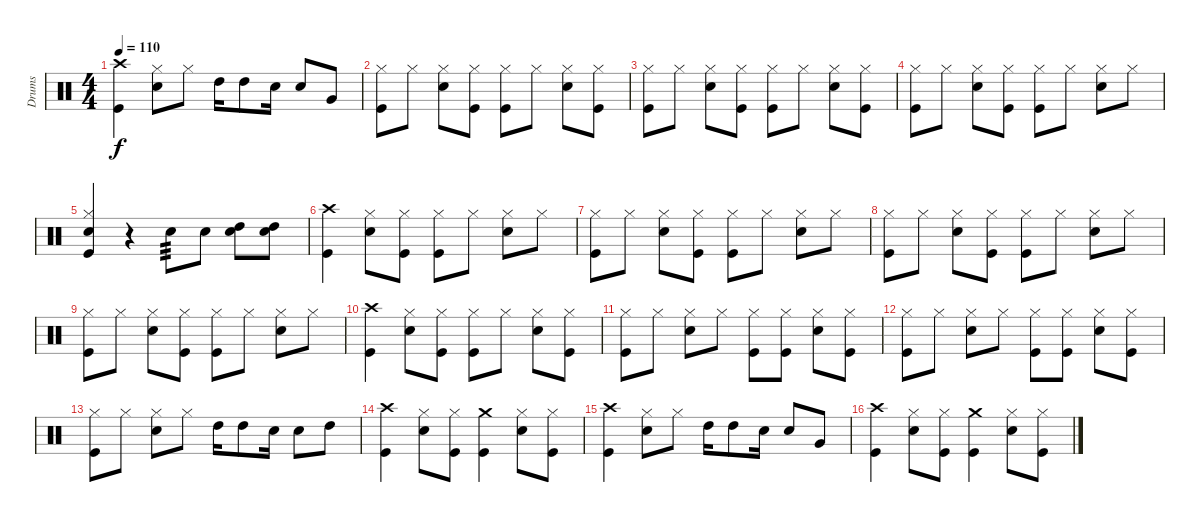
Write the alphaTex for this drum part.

\track ("Drums" "Drums") {instrument percussion}
\staff {score}
\articulation defaults
\ts (4 4)
\tempo 110
\clef neutral
\ks c
("Crash high (hit)" "Kick (hit)").4{dy f} ("Hi-Hat (closed)" "Snare (hit) 2").8 "Hi-Hat (closed)".8 "High Tom (hit)".16 "High Tom (hit)".8 "Snare (hit) 2".16 "Snare (hit) 2".8 "Very Low Tom (hit)".8 |
("Hi-Hat (closed)" "Kick (hit)").8 "Hi-Hat (closed)".8 ("Hi-Hat (closed)" "Snare (hit) 2").8 ("Hi-Hat (closed)" "Kick (hit)").8 ("Hi-Hat (closed)" "Kick (hit)").8 "Hi-Hat (closed)".8 ("Hi-Hat (closed)" "Snare (hit) 2").8 ("Hi-Hat (closed)" "Kick (hit)").8 |
("Hi-Hat (closed)" "Kick (hit)").8 "Hi-Hat (closed)".8 ("Hi-Hat (closed)" "Snare (hit) 2").8 ("Hi-Hat (closed)" "Kick (hit)").8 ("Hi-Hat (closed)" "Kick (hit)").8 "Hi-Hat (closed)".8 ("Hi-Hat (closed)" "Snare (hit) 2").8 ("Hi-Hat (closed)" "Kick (hit)").8 |
("Hi-Hat (closed)" "Kick (hit)").8 "Hi-Hat (closed)".8 ("Hi-Hat (closed)" "Snare (hit) 2").8 ("Hi-Hat (closed)" "Kick (hit)").8 ("Hi-Hat (closed)" "Kick (hit)").8 "Hi-Hat (closed)".8 ("Hi-Hat (closed)" "Snare (hit) 2").8 "Hi-Hat (closed)".8 |
("Hi-Hat (closed)" "Snare (hit) 2" "Kick (hit)").4 r.4 "Snare (hit) 2".8{tp 3} "Snare (hit) 2".8 ("High Tom (hit)" "Snare (hit) 2").8 ("High Tom (hit)" "Snare (hit) 2").8 |
("Crash high (hit)" "Kick (hit)").4 ("Hi-Hat (closed)" "Snare (hit) 2").8 ("Hi-Hat (closed)" "Kick (hit)").8 ("Hi-Hat (closed)" "Kick (hit)").8 "Hi-Hat (closed)".8 ("Hi-Hat (closed)" "Snare (hit) 2").8 "Hi-Hat (closed)".8 |
("Hi-Hat (closed)" "Kick (hit)").8 "Hi-Hat (closed)".8 ("Hi-Hat (closed)" "Snare (hit) 2").8 ("Hi-Hat (closed)" "Kick (hit)").8 ("Hi-Hat (closed)" "Kick (hit)").8 "Hi-Hat (closed)".8 ("Hi-Hat (closed)" "Snare (hit) 2").8 "Hi-Hat (closed)".8 |
("Hi-Hat (closed)" "Kick (hit)").8 "Hi-Hat (closed)".8 ("Hi-Hat (closed)" "Snare (hit) 2").8 ("Hi-Hat (closed)" "Kick (hit)").8 ("Hi-Hat (closed)" "Kick (hit)").8 "Hi-Hat (closed)".8 ("Hi-Hat (closed)" "Snare (hit) 2").8 "Hi-Hat (closed)".8 |
("Hi-Hat (closed)" "Kick (hit)").8 "Hi-Hat (closed)".8 ("Hi-Hat (closed)" "Snare (hit) 2").8 ("Hi-Hat (closed)" "Kick (hit)").8 ("Hi-Hat (closed)" "Kick (hit)").8 "Hi-Hat (closed)".8 ("Hi-Hat (closed)" "Snare (hit) 2").8 "Hi-Hat (closed)".8 |
("Crash high (hit)" "Kick (hit)").4 ("Hi-Hat (closed)" "Snare (hit) 2").8 ("Hi-Hat (closed)" "Kick (hit)").8 ("Hi-Hat (closed)" "Kick (hit)").8 "Hi-Hat (closed)".8 ("Hi-Hat (closed)" "Snare (hit) 2").8 ("Hi-Hat (closed)" "Kick (hit)").8 |
("Hi-Hat (closed)" "Kick (hit)").8 "Hi-Hat (closed)".8 ("Hi-Hat (closed)" "Snare (hit) 2").8 "Hi-Hat (closed)".8 ("Hi-Hat (closed)" "Kick (hit)").8 ("Hi-Hat (closed)" "Kick (hit)").8 ("Hi-Hat (closed)" "Snare (hit) 2").8 ("Hi-Hat (closed)" "Kick (hit)").8 |
("Hi-Hat (closed)" "Kick (hit)").8 "Hi-Hat (closed)".8 ("Hi-Hat (closed)" "Snare (hit) 2").8 "Hi-Hat (closed)".8 ("Hi-Hat (closed)" "Kick (hit)").8 ("Hi-Hat (closed)" "Kick (hit)").8 ("Hi-Hat (closed)" "Snare (hit) 2").8 ("Hi-Hat (closed)" "Kick (hit)").8 |
("Hi-Hat (closed)" "Kick (hit)").8 "Hi-Hat (closed)".8 ("Hi-Hat (closed)" "Snare (hit) 2").8 "Hi-Hat (closed)".8 "High Tom (hit)".16 "High Tom (hit)".8 "Snare (hit) 2".16 "Snare (hit) 2".8 "High Tom (hit)".8 |
("Crash high (hit)" "Kick (hit)").4 ("Hi-Hat (closed)" "Snare (hit) 2").8 ("Hi-Hat (closed)" "Kick (hit)").8 ("Crash medium (hit)" "Kick (hit)").4 ("Hi-Hat (closed)" "Snare (hit) 2").8 ("Hi-Hat (closed)" "Kick (hit)").8 |
("Crash high (hit)" "Kick (hit)").4 ("Hi-Hat (closed)" "Snare (hit) 2").8 "Hi-Hat (closed)".8 "High Tom (hit)".16 "High Tom (hit)".8 "Snare (hit) 2".16 "Snare (hit) 2".8 "Very Low Tom (hit)".8 |
("Crash high (hit)" "Kick (hit)").4 ("Hi-Hat (closed)" "Snare (hit) 2").8 ("Hi-Hat (closed)" "Kick (hit)").8 ("Crash medium (hit)" "Kick (hit)").4 ("Hi-Hat (closed)" "Snare (hit) 2").8 ("Hi-Hat (closed)" "Kick (hit)").8
